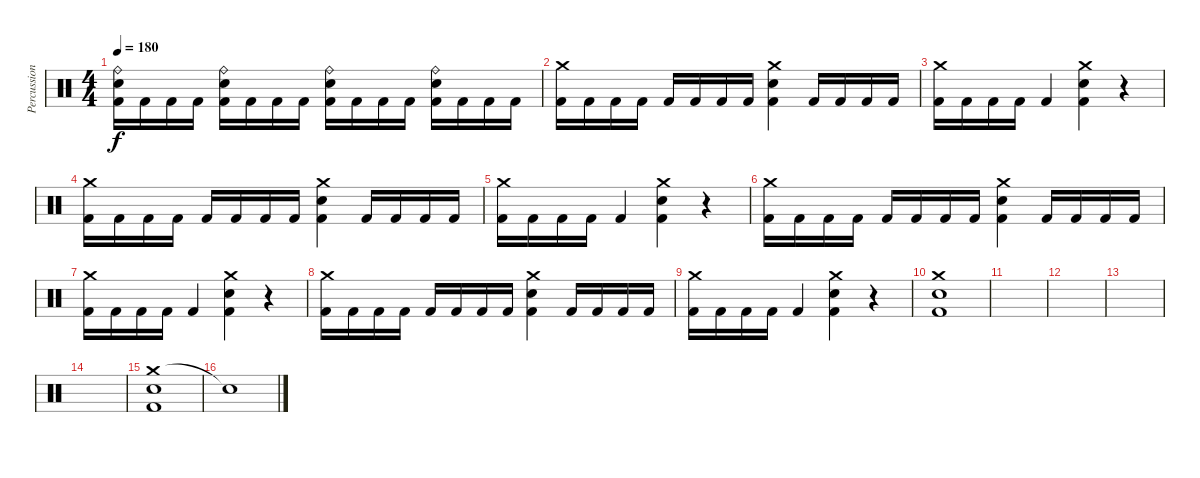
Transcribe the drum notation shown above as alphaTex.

\track ("Percussion" "Percussion") {instrument percussion}
\staff {score}
\articulation defaults
\ts (4 4)
\tempo 180
\clef neutral
\ks c
("Ride (bell)" "Electric Snare (hit)" "Kick (hit) 2").16{dy f} "Kick (hit) 2".16 "Kick (hit) 2".16 "Kick (hit) 2".16 ("Ride (bell)" "Electric Snare (hit)" "Kick (hit) 2").16 "Kick (hit) 2".16 "Kick (hit) 2".16 "Kick (hit) 2".16 ("Ride (bell)" "Electric Snare (hit)" "Kick (hit) 2").16 "Kick (hit) 2".16 "Kick (hit) 2".16 "Kick (hit) 2".16 ("Ride (bell)" "Electric Snare (hit)" "Kick (hit) 2").16 "Kick (hit) 2".16 "Kick (hit) 2".16 "Kick (hit) 2".16 |
("Crash medium (hit)" "Kick (hit) 2").16 "Kick (hit) 2".16 "Kick (hit) 2".16 "Kick (hit) 2".16 "Kick (hit) 2".16 "Kick (hit) 2".16 "Kick (hit) 2".16 "Kick (hit) 2".16 ("Crash medium (hit)" "Electric Snare (hit)" "Kick (hit) 2").4 "Kick (hit) 2".16 "Kick (hit) 2".16 "Kick (hit) 2".16 "Kick (hit) 2".16 |
("Crash medium (hit)" "Kick (hit) 2").16 "Kick (hit) 2".16 "Kick (hit) 2".16 "Kick (hit) 2".16 "Kick (hit) 2".4 ("Crash medium (hit)" "Electric Snare (hit)" "Kick (hit) 2").4 r.4 |
("Crash medium (hit)" "Kick (hit) 2").16 "Kick (hit) 2".16 "Kick (hit) 2".16 "Kick (hit) 2".16 "Kick (hit) 2".16 "Kick (hit) 2".16 "Kick (hit) 2".16 "Kick (hit) 2".16 ("Crash medium (hit)" "Electric Snare (hit)" "Kick (hit) 2").4 "Kick (hit) 2".16 "Kick (hit) 2".16 "Kick (hit) 2".16 "Kick (hit) 2".16 |
("Crash medium (hit)" "Kick (hit) 2").16 "Kick (hit) 2".16 "Kick (hit) 2".16 "Kick (hit) 2".16 "Kick (hit) 2".4 ("Crash medium (hit)" "Electric Snare (hit)" "Kick (hit) 2").4 r.4 |
("Crash medium (hit)" "Kick (hit) 2").16 "Kick (hit) 2".16 "Kick (hit) 2".16 "Kick (hit) 2".16 "Kick (hit) 2".16 "Kick (hit) 2".16 "Kick (hit) 2".16 "Kick (hit) 2".16 ("Crash medium (hit)" "Electric Snare (hit)" "Kick (hit) 2").4 "Kick (hit) 2".16 "Kick (hit) 2".16 "Kick (hit) 2".16 "Kick (hit) 2".16 |
("Crash medium (hit)" "Kick (hit) 2").16 "Kick (hit) 2".16 "Kick (hit) 2".16 "Kick (hit) 2".16 "Kick (hit) 2".4 ("Crash medium (hit)" "Electric Snare (hit)" "Kick (hit) 2").4 r.4 |
("Crash medium (hit)" "Kick (hit) 2").16 "Kick (hit) 2".16 "Kick (hit) 2".16 "Kick (hit) 2".16 "Kick (hit) 2".16 "Kick (hit) 2".16 "Kick (hit) 2".16 "Kick (hit) 2".16 ("Crash medium (hit)" "Electric Snare (hit)" "Kick (hit) 2").4 "Kick (hit) 2".16 "Kick (hit) 2".16 "Kick (hit) 2".16 "Kick (hit) 2".16 |
("Crash medium (hit)" "Kick (hit) 2").16 "Kick (hit) 2".16 "Kick (hit) 2".16 "Kick (hit) 2".16 "Kick (hit) 2".4 ("Crash medium (hit)" "Electric Snare (hit)" "Kick (hit) 2").4 r.4 |
("Crash medium (hit)" "Electric Snare (hit)" "Kick (hit) 2").1 |
|
|
|
|
("Crash medium (hit)" "Electric Snare (hit)" "Kick (hit) 2").1 |
"Snare (hit)"{t}.1
